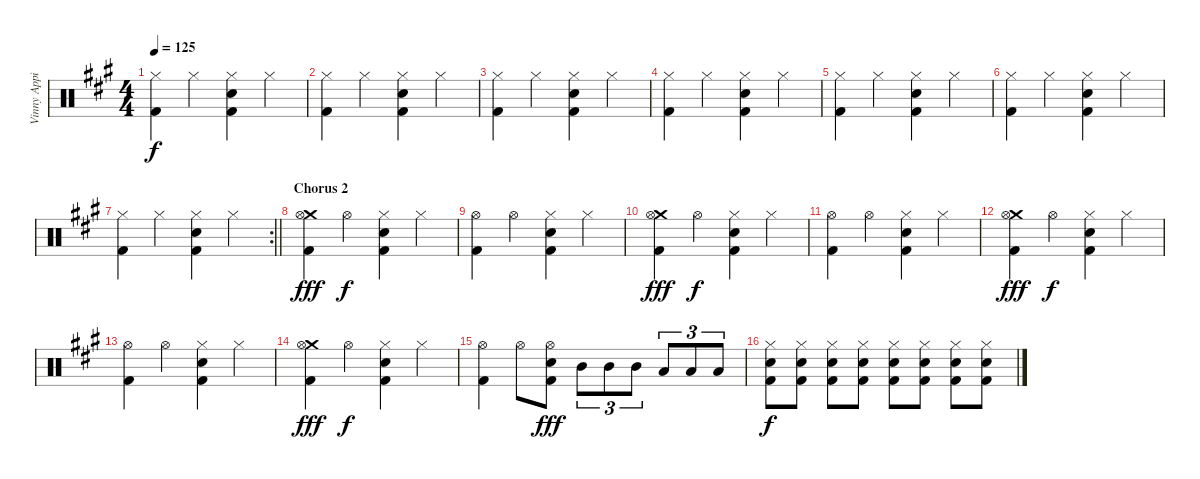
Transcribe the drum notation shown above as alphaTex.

\track ("Vinny Appice" "Vinny Appi") {instrument percussion}
\staff {score}
\articulation defaults
\ts (4 4)
\tempo 125
\clef neutral
\ks a
("Hi-Hat (closed)" "Kick (hit) 2").4{dy f} "Hi-Hat (closed)".4 ("Hi-Hat (closed)" "Snare (hit) 2" "Kick (hit) 2").4 "Hi-Hat (closed)".4 |
("Hi-Hat (closed)" "Kick (hit) 2").4 "Hi-Hat (closed)".4 ("Hi-Hat (closed)" "Snare (hit) 2" "Kick (hit) 2").4 "Hi-Hat (closed)".4 |
("Hi-Hat (closed)" "Kick (hit) 2").4 "Hi-Hat (closed)".4 ("Hi-Hat (closed)" "Snare (hit) 2" "Kick (hit) 2").4 "Hi-Hat (closed)".4 |
("Hi-Hat (closed)" "Kick (hit) 2").4 "Hi-Hat (closed)".4 ("Hi-Hat (closed)" "Snare (hit) 2" "Kick (hit) 2").4 "Hi-Hat (closed)".4 |
("Hi-Hat (closed)" "Kick (hit) 2").4 "Hi-Hat (closed)".4 ("Hi-Hat (closed)" "Snare (hit) 2" "Kick (hit) 2").4 "Hi-Hat (closed)".4 |
("Hi-Hat (closed)" "Kick (hit) 2").4 "Hi-Hat (closed)".4 ("Hi-Hat (closed)" "Snare (hit) 2" "Kick (hit) 2").4 "Hi-Hat (closed)".4 |
\rc 2
\barLineRight lightlight
("Hi-Hat (closed)" "Kick (hit) 2").4 "Hi-Hat (closed)".4 ("Hi-Hat (closed)" "Snare (hit) 2" "Kick (hit) 2").4 "Hi-Hat (closed)".4 |
\section ("" "Chorus 2")
("Crash medium (hit)" "Hi-Hat (open)" "Kick (hit) 2").4{dy fff} "Hi-Hat (open)".4{dy f} ("Hi-Hat (closed)" "Snare (hit) 2" "Kick (hit) 2").4 "Hi-Hat (closed)".4 |
("Hi-Hat (open)" "Kick (hit) 2").4 "Hi-Hat (open)".4 ("Hi-Hat (closed)" "Snare (hit) 2" "Kick (hit) 2").4 "Hi-Hat (closed)".4 |
("Crash medium (hit)" "Hi-Hat (open)" "Kick (hit) 2").4{dy fff} "Hi-Hat (open)".4{dy f} ("Hi-Hat (closed)" "Snare (hit) 2" "Kick (hit) 2").4 "Hi-Hat (closed)".4 |
("Hi-Hat (open)" "Kick (hit) 2").4 "Hi-Hat (open)".4 ("Hi-Hat (closed)" "Snare (hit) 2" "Kick (hit) 2").4 "Hi-Hat (closed)".4 |
("Crash medium (hit)" "Hi-Hat (open)" "Kick (hit) 2").4{dy fff} "Hi-Hat (open)".4{dy f} ("Hi-Hat (closed)" "Snare (hit) 2" "Kick (hit) 2").4 "Hi-Hat (closed)".4 |
("Hi-Hat (open)" "Kick (hit) 2").4 "Hi-Hat (open)".4 ("Hi-Hat (closed)" "Snare (hit) 2" "Kick (hit) 2").4 "Hi-Hat (closed)".4 |
("Crash medium (hit)" "Hi-Hat (open)" "Kick (hit) 2").4{dy fff} "Hi-Hat (open)".4{dy f} ("Hi-Hat (closed)" "Snare (hit) 2" "Kick (hit) 2").4 "Hi-Hat (closed)".4 |
("Hi-Hat (open)" "Kick (hit) 2").4 "Hi-Hat (open)".8 ("Hi-Hat (open)" "Snare (hit) 2" "Kick (hit) 2").8{dy fff} "Mid Tom (hit)".8{tu (3 2)} "Mid Tom (hit)".8{tu (3 2)} "Mid Tom (hit)".8{tu (3 2)} "Low Tom (hit)".8{tu (3 2)} "Low Tom (hit)".8{tu (3 2)} "Low Tom (hit)".8{tu (3 2)} |
("Hi-Hat (closed)" "Snare (hit) 2" "Kick (hit) 2").8{dy f} ("Hi-Hat (closed)" "Snare (hit) 2" "Kick (hit) 2").8 ("Hi-Hat (closed)" "Snare (hit) 2" "Kick (hit) 2").8 ("Hi-Hat (closed)" "Snare (hit) 2" "Kick (hit) 2").8 ("Hi-Hat (closed)" "Snare (hit) 2" "Kick (hit) 2").8 ("Hi-Hat (closed)" "Snare (hit) 2" "Kick (hit) 2").8 ("Hi-Hat (closed)" "Snare (hit) 2" "Kick (hit) 2").8 ("Hi-Hat (closed)" "Snare (hit) 2" "Kick (hit) 2").8
